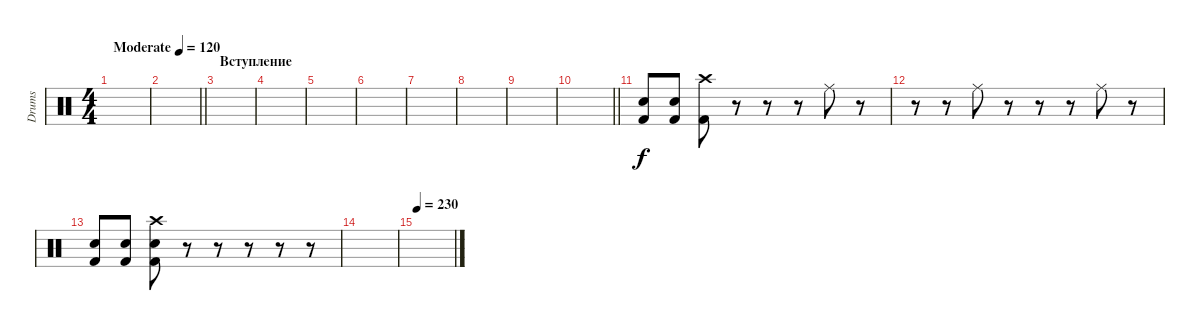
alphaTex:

\track ("Drums" "Drums") {instrument percussion}
\staff {score}
\articulation defaults
\ts (4 4)
\tempo (120 "Moderate")
\clef neutral
\ks c
|
\barLineRight lightlight
|
\section ("" "Вступление")
|
|
|
|
|
|
|
\barLineRight lightlight
|
\section ("" "")
("Electric Snare (hit)" "Kick (hit) 2").8 ("Electric Snare (hit)" "Kick (hit) 2").8 ("Crash high (hit)" "Kick (hit) 2").8 r.8 r.8 r.8 "Ride (middle)".8 r.8 |
r.8 r.8 "Ride (middle)".8 r.8 r.8 r.8 "Ride (middle)".8 r.8 |
("Electric Snare (hit)" "Kick (hit) 2").8 ("Electric Snare (hit)" "Kick (hit) 2").8 ("Crash high (hit)" "Electric Snare (hit)" "Kick (hit) 2").8 r.8 r.8 r.8 r.8 r.8 |
|
\tempo 230
